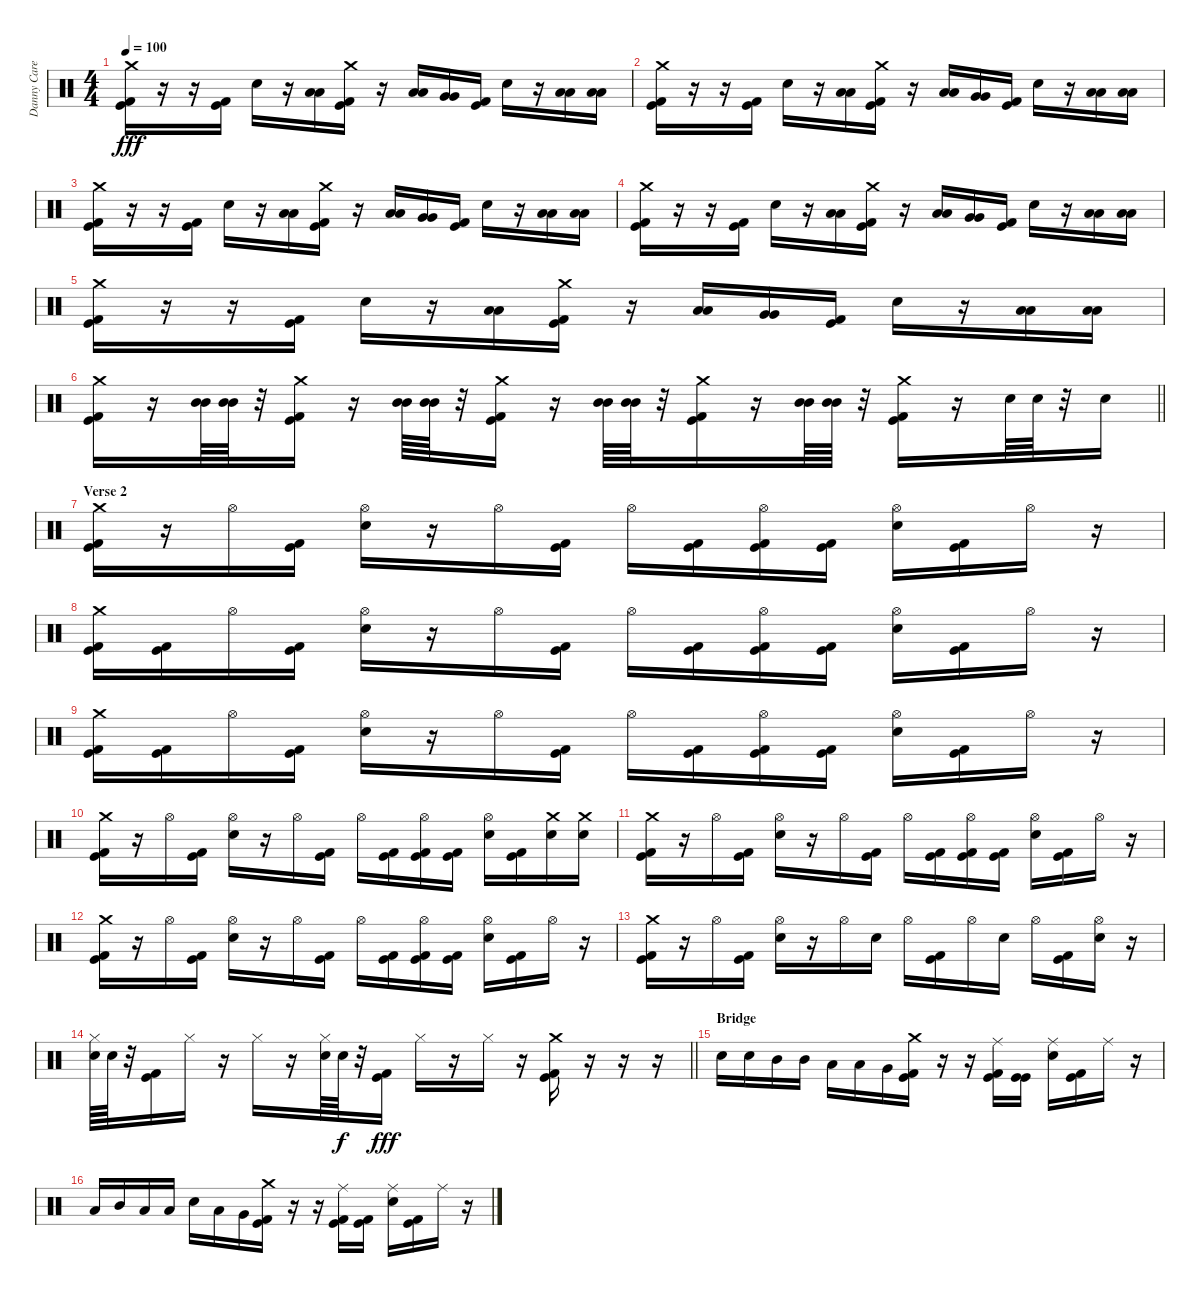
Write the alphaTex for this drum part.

\track ("Danny Carey - Percussion" "Danny Care") {instrument percussion}
\staff {score}
\articulation defaults
\ts (4 4)
\tempo 100
\clef neutral
\ks c
("Crash medium (hit)" "Kick (hit)" "Kick (hit) 2").16{dy fff} r.16 r.16 ("Kick (hit)" "Kick (hit) 2").16 "Electric Snare (hit)".16 r.16 ("Low Tom (hit)" "Low Tom (hit)").16 ("Crash medium (hit)" "Kick (hit)" "Kick (hit) 2").16 r.16 ("Low Tom (hit)" "Low Tom (hit)").16 ("Very Low Tom (hit)" "Very Low Tom (hit)").16 ("Kick (hit)" "Kick (hit) 2").16 "Electric Snare (hit)".16 r.16 ("Low Tom (hit)" "Low Tom (hit)").16 ("Low Tom (hit)" "Low Tom (hit)").16 |
("Crash medium (hit)" "Kick (hit)" "Kick (hit) 2").16 r.16 r.16 ("Kick (hit)" "Kick (hit) 2").16 "Electric Snare (hit)".16 r.16 ("Low Tom (hit)" "Low Tom (hit)").16 ("Crash medium (hit)" "Kick (hit)" "Kick (hit) 2").16 r.16 ("Low Tom (hit)" "Low Tom (hit)").16 ("Very Low Tom (hit)" "Very Low Tom (hit)").16 ("Kick (hit)" "Kick (hit) 2").16 "Electric Snare (hit)".16 r.16 ("Low Tom (hit)" "Low Tom (hit)").16 ("Low Tom (hit)" "Low Tom (hit)").16 |
("Crash medium (hit)" "Kick (hit)" "Kick (hit) 2").16 r.16 r.16 ("Kick (hit)" "Kick (hit) 2").16 "Electric Snare (hit)".16 r.16 ("Low Tom (hit)" "Low Tom (hit)").16 ("Crash medium (hit)" "Kick (hit)" "Kick (hit) 2").16 r.16 ("Low Tom (hit)" "Low Tom (hit)").16 ("Very Low Tom (hit)" "Very Low Tom (hit)").16 ("Kick (hit)" "Kick (hit) 2").16 "Electric Snare (hit)".16 r.16 ("Low Tom (hit)" "Low Tom (hit)").16 ("Low Tom (hit)" "Low Tom (hit)").16 |
("Crash medium (hit)" "Kick (hit)" "Kick (hit) 2").16 r.16 r.16 ("Kick (hit)" "Kick (hit) 2").16 "Electric Snare (hit)".16 r.16 ("Low Tom (hit)" "Low Tom (hit)").16 ("Crash medium (hit)" "Kick (hit)" "Kick (hit) 2").16 r.16 ("Low Tom (hit)" "Low Tom (hit)").16 ("Very Low Tom (hit)" "Very Low Tom (hit)").16 ("Kick (hit)" "Kick (hit) 2").16 "Electric Snare (hit)".16 r.16 ("Low Tom (hit)" "Low Tom (hit)").16 ("Low Tom (hit)" "Low Tom (hit)").16 |
("Crash medium (hit)" "Kick (hit)" "Kick (hit) 2").16 r.16 r.16 ("Kick (hit)" "Kick (hit) 2").16 "Electric Snare (hit)".16 r.16 ("Low Tom (hit)" "Low Tom (hit)").16 ("Crash medium (hit)" "Kick (hit)" "Kick (hit) 2").16 r.16 ("Low Tom (hit)" "Low Tom (hit)").16 ("Very Low Tom (hit)" "Very Low Tom (hit)").16 ("Kick (hit)" "Kick (hit) 2").16 "Electric Snare (hit)".16 r.16 ("Low Tom (hit)" "Low Tom (hit)").16 ("Low Tom (hit)" "Low Tom (hit)").16 |
\barLineRight lightlight
("Crash medium (hit)" "Kick (hit)" "Kick (hit) 2").16 r.16 ("Mid Tom (hit)" "Mid Tom (hit)").64 ("Mid Tom (hit)" "Mid Tom (hit)").64 r.32 ("Crash medium (hit)" "Kick (hit)" "Kick (hit) 2").16 r.16 ("Mid Tom (hit)" "Mid Tom (hit)").64 ("Mid Tom (hit)" "Mid Tom (hit)").64 r.32 ("Crash medium (hit)" "Kick (hit)" "Kick (hit) 2").16 r.16 ("Mid Tom (hit)" "Mid Tom (hit)").64 ("Mid Tom (hit)" "Mid Tom (hit)").64 r.32 ("Crash medium (hit)" "Kick (hit)" "Kick (hit) 2").16 r.16 ("Mid Tom (hit)" "Mid Tom (hit)").64 ("Mid Tom (hit)" "Mid Tom (hit)").64 r.32 ("Crash medium (hit)" "Kick (hit)" "Kick (hit) 2").16 r.16 "Electric Snare (hit)".64 "Electric Snare (hit)".64 r.32 "Electric Snare (hit)".16 |
\section ("" "Verse 2")
("Crash medium (hit)" "Kick (hit)" "Kick (hit) 2").16 r.16 "Hi-Hat (open)".16 ("Kick (hit)" "Kick (hit) 2").16 ("Hi-Hat (open)" "Electric Snare (hit)").16 r.16 "Hi-Hat (open)".16 ("Kick (hit)" "Kick (hit) 2").16 "Hi-Hat (open)".16 ("Kick (hit)" "Kick (hit) 2").16 ("Hi-Hat (open)" "Kick (hit)" "Kick (hit) 2").16 ("Kick (hit)" "Kick (hit) 2").16 ("Hi-Hat (open)" "Electric Snare (hit)").16 ("Kick (hit)" "Kick (hit) 2").16 "Hi-Hat (open)".16 r.16 |
("Crash medium (hit)" "Kick (hit)" "Kick (hit) 2").16 ("Kick (hit)" "Kick (hit) 2").16 "Hi-Hat (open)".16 ("Kick (hit)" "Kick (hit) 2").16 ("Hi-Hat (open)" "Electric Snare (hit)").16 r.16 "Hi-Hat (open)".16 ("Kick (hit)" "Kick (hit) 2").16 "Hi-Hat (open)".16 ("Kick (hit)" "Kick (hit) 2").16 ("Hi-Hat (open)" "Kick (hit)" "Kick (hit) 2").16 ("Kick (hit)" "Kick (hit) 2").16 ("Hi-Hat (open)" "Electric Snare (hit)").16 ("Kick (hit)" "Kick (hit) 2").16 "Hi-Hat (open)".16 r.16 |
("Crash medium (hit)" "Kick (hit)" "Kick (hit) 2").16 ("Kick (hit)" "Kick (hit) 2").16 "Hi-Hat (open)".16 ("Kick (hit)" "Kick (hit) 2").16 ("Hi-Hat (open)" "Electric Snare (hit)").16 r.16 "Hi-Hat (open)".16 ("Kick (hit)" "Kick (hit) 2").16 "Hi-Hat (open)".16 ("Kick (hit)" "Kick (hit) 2").16 ("Hi-Hat (open)" "Kick (hit)" "Kick (hit) 2").16 ("Kick (hit)" "Kick (hit) 2").16 ("Hi-Hat (open)" "Electric Snare (hit)").16 ("Kick (hit)" "Kick (hit) 2").16 "Hi-Hat (open)".16 r.16 |
("Crash medium (hit)" "Kick (hit)" "Kick (hit) 2").16 r.16 "Hi-Hat (open)".16 ("Kick (hit)" "Kick (hit) 2").16 ("Hi-Hat (open)" "Electric Snare (hit)").16 r.16 "Hi-Hat (open)".16 ("Kick (hit)" "Kick (hit) 2").16 "Hi-Hat (open)".16 ("Kick (hit)" "Kick (hit) 2").16 ("Hi-Hat (open)" "Kick (hit)" "Kick (hit) 2").16 ("Kick (hit)" "Kick (hit) 2").16 ("Hi-Hat (open)" "Electric Snare (hit)").16 ("Kick (hit)" "Kick (hit) 2").16 ("Crash medium (hit)" "Electric Snare (hit)").16 ("Crash medium (hit)" "Electric Snare (hit)").16 |
("Crash medium (hit)" "Kick (hit)" "Kick (hit) 2").16 r.16 "Hi-Hat (open)".16 ("Kick (hit)" "Kick (hit) 2").16 ("Hi-Hat (open)" "Electric Snare (hit)").16 r.16 "Hi-Hat (open)".16 ("Kick (hit)" "Kick (hit) 2").16 "Hi-Hat (open)".16 ("Kick (hit)" "Kick (hit) 2").16 ("Hi-Hat (open)" "Kick (hit)" "Kick (hit) 2").16 ("Kick (hit)" "Kick (hit) 2").16 ("Hi-Hat (open)" "Electric Snare (hit)").16 ("Kick (hit)" "Kick (hit) 2").16 "Hi-Hat (open)".16 r.16 |
("Crash medium (hit)" "Kick (hit)" "Kick (hit) 2").16 r.16 "Hi-Hat (open)".16 ("Kick (hit)" "Kick (hit) 2").16 ("Hi-Hat (open)" "Electric Snare (hit)").16 r.16 "Hi-Hat (open)".16 ("Kick (hit)" "Kick (hit) 2").16 "Hi-Hat (open)".16 ("Kick (hit)" "Kick (hit) 2").16 ("Hi-Hat (open)" "Kick (hit)" "Kick (hit) 2").16 ("Kick (hit)" "Kick (hit) 2").16 ("Hi-Hat (open)" "Electric Snare (hit)").16 ("Kick (hit)" "Kick (hit) 2").16 "Hi-Hat (open)".16 r.16 |
("Crash medium (hit)" "Kick (hit)" "Kick (hit) 2").16 r.16 "Hi-Hat (open)".16 ("Kick (hit)" "Kick (hit) 2").16 ("Hi-Hat (open)" "Electric Snare (hit)").16 r.16 "Hi-Hat (open)".16 "Electric Snare (hit)".16 "Hi-Hat (open)".16 ("Kick (hit)" "Kick (hit) 2").16 "Hi-Hat (open)".16 "Electric Snare (hit)".16 "Hi-Hat (open)".16 ("Kick (hit)" "Kick (hit) 2").16 ("Hi-Hat (open)" "Electric Snare (hit)").16 r.16 |
\barLineRight lightlight
("Hi-Hat (closed)" "Electric Snare (hit)").64 "Electric Snare (hit)".64 r.32 ("Kick (hit)" "Kick (hit) 2").16 "Hi-Hat (closed)".16 r.16 "Hi-Hat (closed)".16 r.16 ("Hi-Hat (closed)" "Electric Snare (hit)").64 "Electric Snare (hit)".64{dy f} r.32 ("Kick (hit)" "Kick (hit) 2").16{dy fff} "Hi-Hat (closed)".16 r.16 "Hi-Hat (closed)".16 r.16 ("Crash medium (hit)" "Kick (hit)" "Kick (hit) 2").16 r.16 r.16 r.16 |
\section ("" "Bridge")
"Electric Snare (hit)".16 "Electric Snare (hit)".16 "Mid Tom (hit)".16 "Mid Tom (hit)".16 "Low Tom (hit)".16 "Low Tom (hit)".16 "Very Low Tom (hit)".16 ("Crash medium (hit)" "Kick (hit)" "Kick (hit) 2").16 r.16 r.16 ("Ride (middle)" "Kick (hit)" "Kick (hit) 2").16 ("Kick (hit)" "Kick (hit)").16 ("Ride (middle)" "Electric Snare (hit)").16 ("Kick (hit)" "Kick (hit) 2").16 "Ride (middle)".16 r.16 |
"Low Tom (hit)".16 "Mid Tom (hit)".16 "Low Tom (hit)".16 "Low Tom (hit)".16 "Electric Snare (hit)".16 "Low Tom (hit)".16 "Very Low Tom (hit)".16 ("Crash medium (hit)" "Kick (hit)" "Kick (hit) 2").16 r.16 r.16 ("Ride (middle)" "Kick (hit)" "Kick (hit) 2").16 ("Kick (hit)" "Kick (hit) 2").16 ("Ride (middle)" "Electric Snare (hit)").16 ("Kick (hit)" "Kick (hit) 2").16 "Ride (middle)".16 r.16
